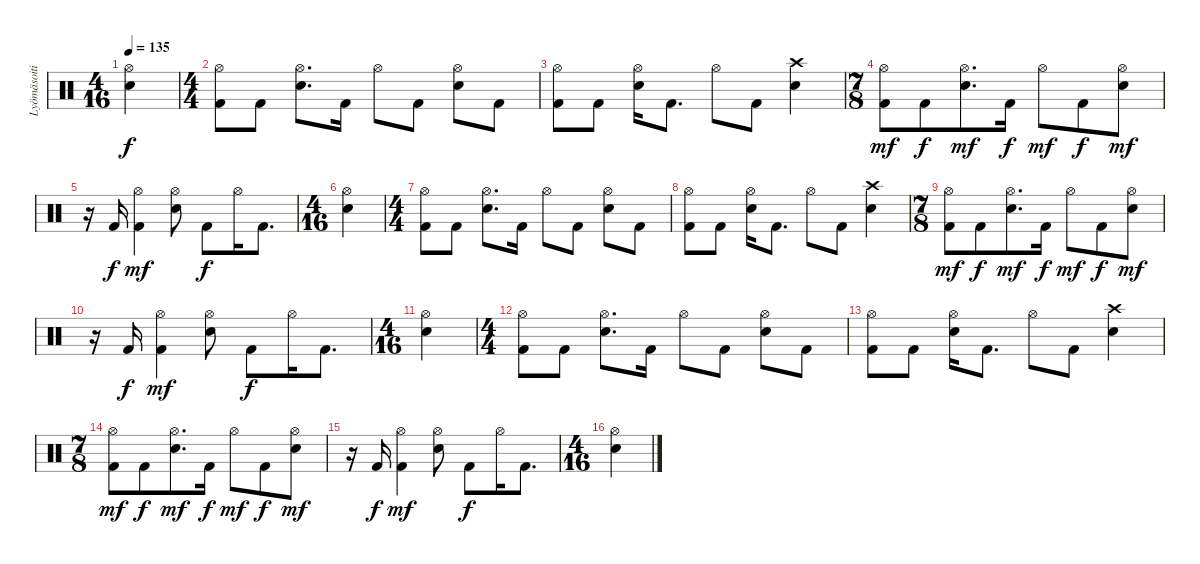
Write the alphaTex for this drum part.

\track ("Lyömäsoitin" "Lyömäsoiti") {instrument percussion}
\staff {score}
\articulation defaults
\ts (4 16)
\tempo 135
\clef neutral
\ks c
("Hi-Hat (open)" "Electric Snare (hit)").4{dy f} |
\ts (4 4)
("Hi-Hat (open)" "Kick (hit) 2").8 "Kick (hit) 2".8 ("Hi-Hat (open)" "Electric Snare (hit)").8{d} "Kick (hit) 2".16 "Hi-Hat (open)".8 "Kick (hit) 2".8 ("Hi-Hat (open)" "Electric Snare (hit)").8 "Kick (hit) 2".8 |
("Hi-Hat (open)" "Kick (hit) 2").8 "Kick (hit) 2".8 ("Hi-Hat (open)" "Electric Snare (hit)").16 "Kick (hit) 2".8{d} "Hi-Hat (open)".8 "Kick (hit) 2".8 ("Crash high (hit)" "Electric Snare (hit)").4 |
\ts (7 8)
("Hi-Hat (open)" "Kick (hit) 2").8{dy mf} "Kick (hit) 2".8{dy f} ("Hi-Hat (open)" "Electric Snare (hit)").8{d dy mf} "Kick (hit) 2".16{dy f} "Hi-Hat (open)".8{dy mf} "Kick (hit) 2".8{dy f} ("Hi-Hat (open)" "Electric Snare (hit)").8{dy mf} |
r.16 "Kick (hit) 2".16{dy f} ("Hi-Hat (open)" "Kick (hit) 2").4{dy mf} ("Hi-Hat (open)" "Electric Snare (hit)").8 "Kick (hit) 2".8{dy f} "Hi-Hat (open)".16 "Kick (hit) 2".8{d} |
\ts (4 16)
("Hi-Hat (open)" "Electric Snare (hit)").4 |
\ts (4 4)
("Hi-Hat (open)" "Kick (hit) 2").8 "Kick (hit) 2".8 ("Hi-Hat (open)" "Electric Snare (hit)").8{d} "Kick (hit) 2".16 "Hi-Hat (open)".8 "Kick (hit) 2".8 ("Hi-Hat (open)" "Electric Snare (hit)").8 "Kick (hit) 2".8 |
("Hi-Hat (open)" "Kick (hit) 2").8 "Kick (hit) 2".8 ("Hi-Hat (open)" "Electric Snare (hit)").16 "Kick (hit) 2".8{d} "Hi-Hat (open)".8 "Kick (hit) 2".8 ("Crash high (hit)" "Electric Snare (hit)").4 |
\ts (7 8)
("Hi-Hat (open)" "Kick (hit) 2").8{dy mf} "Kick (hit) 2".8{dy f} ("Hi-Hat (open)" "Electric Snare (hit)").8{d dy mf} "Kick (hit) 2".16{dy f} "Hi-Hat (open)".8{dy mf} "Kick (hit) 2".8{dy f} ("Hi-Hat (open)" "Electric Snare (hit)").8{dy mf} |
r.16 "Kick (hit) 2".16{dy f} ("Hi-Hat (open)" "Kick (hit) 2").4{dy mf} ("Hi-Hat (open)" "Electric Snare (hit)").8 "Kick (hit) 2".8{dy f} "Hi-Hat (open)".16 "Kick (hit) 2".8{d} |
\ts (4 16)
("Hi-Hat (open)" "Electric Snare (hit)").4 |
\ts (4 4)
("Hi-Hat (open)" "Kick (hit) 2").8 "Kick (hit) 2".8 ("Hi-Hat (open)" "Electric Snare (hit)").8{d} "Kick (hit) 2".16 "Hi-Hat (open)".8 "Kick (hit) 2".8 ("Hi-Hat (open)" "Electric Snare (hit)").8 "Kick (hit) 2".8 |
("Hi-Hat (open)" "Kick (hit) 2").8 "Kick (hit) 2".8 ("Hi-Hat (open)" "Electric Snare (hit)").16 "Kick (hit) 2".8{d} "Hi-Hat (open)".8 "Kick (hit) 2".8 ("Crash high (hit)" "Electric Snare (hit)").4 |
\ts (7 8)
("Hi-Hat (open)" "Kick (hit) 2").8{dy mf} "Kick (hit) 2".8{dy f} ("Hi-Hat (open)" "Electric Snare (hit)").8{d dy mf} "Kick (hit) 2".16{dy f} "Hi-Hat (open)".8{dy mf} "Kick (hit) 2".8{dy f} ("Hi-Hat (open)" "Electric Snare (hit)").8{dy mf} |
r.16 "Kick (hit) 2".16{dy f} ("Hi-Hat (open)" "Kick (hit) 2").4{dy mf} ("Hi-Hat (open)" "Electric Snare (hit)").8 "Kick (hit) 2".8{dy f} "Hi-Hat (open)".16 "Kick (hit) 2".8{d} |
\ts (4 16)
("Hi-Hat (open)" "Electric Snare (hit)").4
